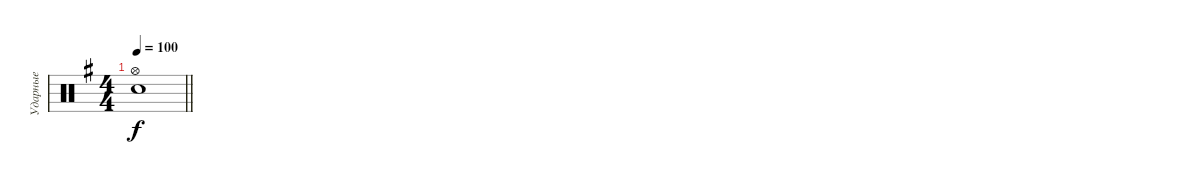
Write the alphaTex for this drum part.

\track ("Ударные" "Ударные") {instrument percussion}
\staff {score}
\articulation defaults
\ts (4 4)
\tempo 100
\clef neutral
\barLineRight lightlight
\ks g
("Hi-Hat (open)" "Snare (hit) 2").1{dy f}
